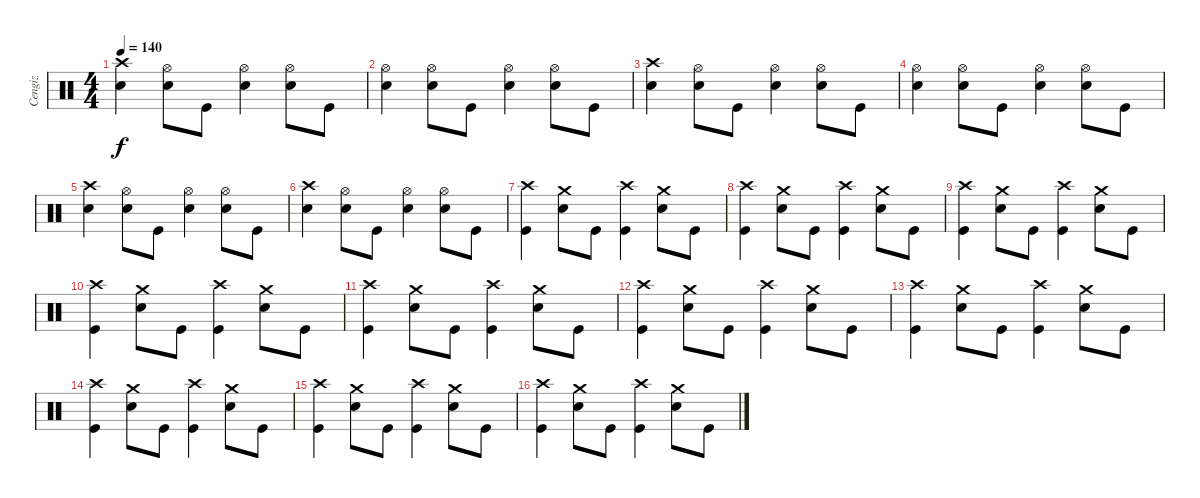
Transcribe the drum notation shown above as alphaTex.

\track ("Cengiz" "Cengiz") {instrument percussion}
\staff {score}
\articulation defaults
\ts (4 4)
\tempo 140
\clef neutral
\ks c
("Crash high (hit)" "Electric Snare (hit)").4{dy f} ("Hi-Hat (open)" "Electric Snare (hit)").8 "Kick (hit)".8 ("Hi-Hat (open)" "Electric Snare (hit)").4 ("Hi-Hat (open)" "Electric Snare (hit)").8 "Kick (hit)".8 |
("Hi-Hat (open)" "Electric Snare (hit)").4 ("Hi-Hat (open)" "Electric Snare (hit)").8 "Kick (hit)".8 ("Hi-Hat (open)" "Electric Snare (hit)").4 ("Hi-Hat (open)" "Electric Snare (hit)").8 "Kick (hit)".8 |
("Crash high (hit)" "Electric Snare (hit)").4 ("Hi-Hat (open)" "Electric Snare (hit)").8 "Kick (hit)".8 ("Hi-Hat (open)" "Electric Snare (hit)").4 ("Hi-Hat (open)" "Electric Snare (hit)").8 "Kick (hit)".8 |
("Hi-Hat (open)" "Electric Snare (hit)").4 ("Hi-Hat (open)" "Electric Snare (hit)").8 "Kick (hit)".8 ("Hi-Hat (open)" "Electric Snare (hit)").4 ("Hi-Hat (open)" "Electric Snare (hit)").8 "Kick (hit)".8 |
("Crash high (hit)" "Electric Snare (hit)").4 ("Hi-Hat (open)" "Electric Snare (hit)").8 "Kick (hit)".8 ("Hi-Hat (open)" "Electric Snare (hit)").4 ("Hi-Hat (open)" "Electric Snare (hit)").8 "Kick (hit)".8 |
("Crash high (hit)" "Electric Snare (hit)").4 ("Hi-Hat (open)" "Electric Snare (hit)").8 "Kick (hit)".8 ("Hi-Hat (open)" "Electric Snare (hit)").4 ("Hi-Hat (open)" "Electric Snare (hit)").8 "Kick (hit)".8 |
("Crash high (hit)" "Kick (hit)").4 ("Crash medium (hit)" "Electric Snare (hit)").8 "Kick (hit)".8 ("Crash high (hit)" "Kick (hit)").4 ("Crash medium (hit)" "Electric Snare (hit)").8 "Kick (hit)".8 |
("Crash high (hit)" "Kick (hit)").4 ("Crash medium (hit)" "Electric Snare (hit)").8 "Kick (hit)".8 ("Crash high (hit)" "Kick (hit)").4 ("Crash medium (hit)" "Electric Snare (hit)").8 "Kick (hit)".8 |
("Crash high (hit)" "Kick (hit)").4 ("Crash medium (hit)" "Electric Snare (hit)").8 "Kick (hit)".8 ("Crash high (hit)" "Kick (hit)").4 ("Crash medium (hit)" "Electric Snare (hit)").8 "Kick (hit)".8 |
("Crash high (hit)" "Kick (hit)").4 ("Crash medium (hit)" "Electric Snare (hit)").8 "Kick (hit)".8 ("Crash high (hit)" "Kick (hit)").4 ("Crash medium (hit)" "Electric Snare (hit)").8 "Kick (hit)".8 |
("Crash high (hit)" "Kick (hit)").4 ("Crash medium (hit)" "Electric Snare (hit)").8 "Kick (hit)".8 ("Crash high (hit)" "Kick (hit)").4 ("Crash medium (hit)" "Electric Snare (hit)").8 "Kick (hit)".8 |
("Crash high (hit)" "Kick (hit)").4 ("Crash medium (hit)" "Electric Snare (hit)").8 "Kick (hit)".8 ("Crash high (hit)" "Kick (hit)").4 ("Crash medium (hit)" "Electric Snare (hit)").8 "Kick (hit)".8 |
("Crash high (hit)" "Kick (hit)").4 ("Crash medium (hit)" "Electric Snare (hit)").8 "Kick (hit)".8 ("Crash high (hit)" "Kick (hit)").4 ("Crash medium (hit)" "Electric Snare (hit)").8 "Kick (hit)".8 |
("Crash high (hit)" "Kick (hit)").4 ("Crash medium (hit)" "Electric Snare (hit)").8 "Kick (hit)".8 ("Crash high (hit)" "Kick (hit)").4 ("Crash medium (hit)" "Electric Snare (hit)").8 "Kick (hit)".8 |
("Crash high (hit)" "Kick (hit)").4 ("Crash medium (hit)" "Electric Snare (hit)").8 "Kick (hit)".8 ("Crash high (hit)" "Kick (hit)").4 ("Crash medium (hit)" "Electric Snare (hit)").8 "Kick (hit)".8 |
("Crash high (hit)" "Kick (hit)").4 ("Crash medium (hit)" "Electric Snare (hit)").8 "Kick (hit)".8 ("Crash high (hit)" "Kick (hit)").4 ("Crash medium (hit)" "Electric Snare (hit)").8 "Kick (hit)".8
